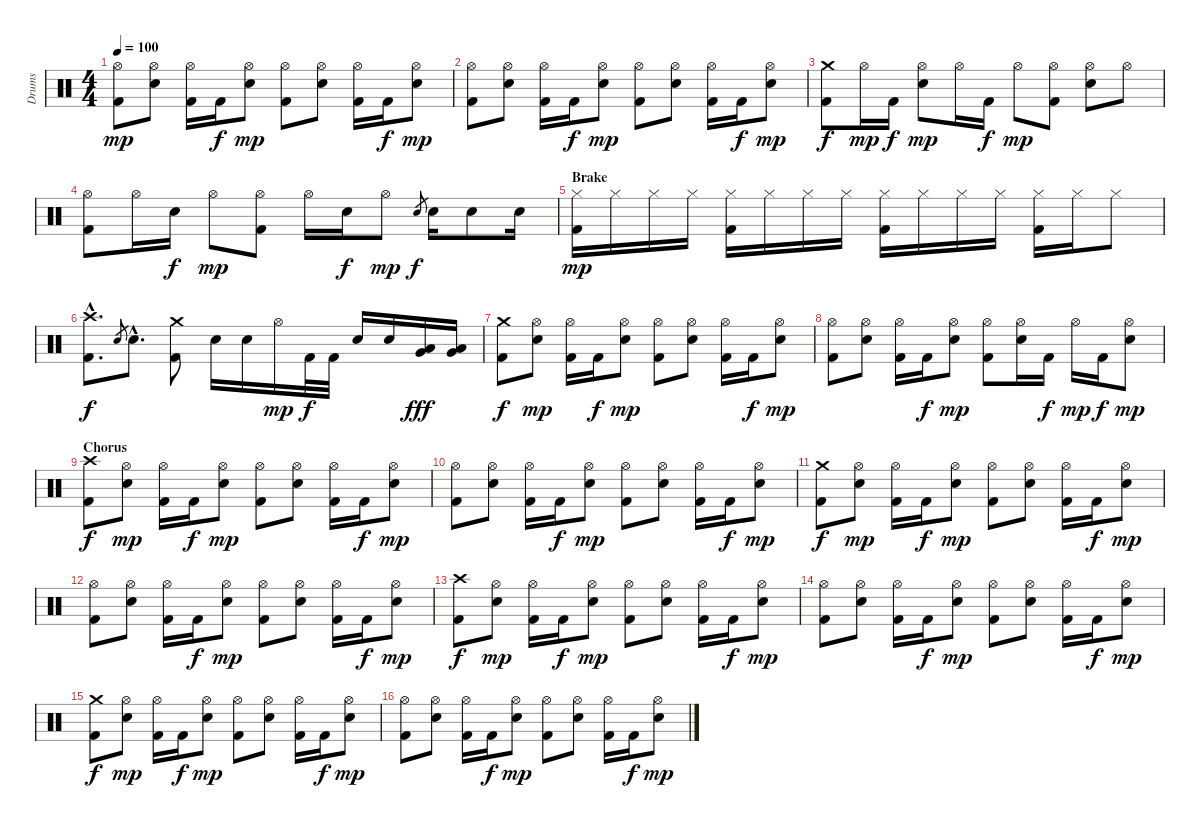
\track ("Drums" "Drums") {instrument percussion}
\staff {score}
\articulation defaults
\ts (4 4)
\tempo 100
\clef neutral
\ks c
("Hi-Hat (open)" "Kick (hit) 2").8{dy mp} ("Hi-Hat (open)" "Snare (hit) 2").8 ("Hi-Hat (open)" "Kick (hit) 2").16 "Kick (hit) 2".16{dy f} ("Hi-Hat (open)" "Snare (hit) 2").8{dy mp} ("Hi-Hat (open)" "Kick (hit) 2").8 ("Hi-Hat (open)" "Snare (hit) 2").8 ("Hi-Hat (open)" "Kick (hit) 2").16 "Kick (hit) 2".16{dy f} ("Hi-Hat (open)" "Snare (hit) 2").8{dy mp} |
("Hi-Hat (open)" "Kick (hit) 2").8 ("Hi-Hat (open)" "Snare (hit) 2").8 ("Hi-Hat (open)" "Kick (hit) 2").16 "Kick (hit) 2".16{dy f} ("Hi-Hat (open)" "Snare (hit) 2").8{dy mp} ("Hi-Hat (open)" "Kick (hit) 2").8 ("Hi-Hat (open)" "Snare (hit) 2").8 ("Hi-Hat (open)" "Kick (hit) 2").16 "Kick (hit) 2".16{dy f} ("Hi-Hat (open)" "Snare (hit) 2").8{dy mp} |
("Crash medium (hit)" "Kick (hit) 2").8{dy f} "Hi-Hat (open)".16{dy mp} "Kick (hit) 2".16{dy f} ("Hi-Hat (open)" "Snare (hit) 2").8{dy mp} "Hi-Hat (open)".16 "Kick (hit) 2".16{dy f} "Hi-Hat (open)".8{dy mp} ("Hi-Hat (open)" "Kick (hit) 2").8 ("Hi-Hat (open)" "Snare (hit) 2").8 "Hi-Hat (open)".8 |
("Hi-Hat (open)" "Kick (hit) 2").8 "Hi-Hat (open)".16 "Snare (hit) 2".16{dy f} "Hi-Hat (open)".8{dy mp} ("Hi-Hat (open)" "Kick (hit) 2").8 "Hi-Hat (open)".16 "Snare (hit) 2".16{dy f} "Hi-Hat (open)".8{dy mp} "Snare (hit) 2".8{gr dy f} "Snare (hit) 2".16 "Snare (hit) 2".8 "Snare (hit) 2".16 |
\section ("" "Brake")
("Hi-Hat (closed)" "Kick (hit) 2").16{dy mp} "Hi-Hat (closed)".16 "Hi-Hat (closed)".16 "Hi-Hat (closed)".16 ("Hi-Hat (closed)" "Kick (hit) 2").16 "Hi-Hat (closed)".16 "Hi-Hat (closed)".16 "Hi-Hat (closed)".16 ("Hi-Hat (closed)" "Kick (hit) 2").16 "Hi-Hat (closed)".16 "Hi-Hat (closed)".16 "Hi-Hat (closed)".16 ("Hi-Hat (closed)" "Kick (hit) 2").16 "Hi-Hat (closed)".16 "Hi-Hat (closed)".8 |
("Crash high (hit)"{hac} "Kick (hit) 2"{hac}).8{d dy f} "Snare (hit) 2".8{gr} "Snare (hit) 2"{hac}.8{d} ("Crash medium (hit)" "Kick (hit) 2").8 "Snare (hit) 2".16 "Snare (hit) 2".16 "Hi-Hat (open)".16{dy mp} "Kick (hit) 2".32{dy f} "Kick (hit) 2".32 "Snare (hit) 2".16 "Snare (hit) 2".16 ("Low Tom (hit)" "Very Low Tom (hit)").16{dy fff} ("Low Tom (hit)" "Very Low Tom (hit)").16 |
("Crash medium (hit)" "Kick (hit) 2").8{dy f} ("Hi-Hat (open)" "Snare (hit) 2").8{dy mp} ("Hi-Hat (open)" "Kick (hit) 2").16 "Kick (hit) 2".16{dy f} ("Hi-Hat (open)" "Snare (hit) 2").8{dy mp} ("Hi-Hat (open)" "Kick (hit) 2").8 ("Hi-Hat (open)" "Snare (hit) 2").8 ("Hi-Hat (open)" "Kick (hit) 2").16 "Kick (hit) 2".16{dy f} ("Hi-Hat (open)" "Snare (hit) 2").8{dy mp} |
("Hi-Hat (open)" "Kick (hit) 2").8 ("Hi-Hat (open)" "Snare (hit) 2").8 ("Hi-Hat (open)" "Kick (hit) 2").16 "Kick (hit) 2".16{dy f} ("Hi-Hat (open)" "Snare (hit) 2").8{dy mp} ("Hi-Hat (open)" "Kick (hit) 2").8 ("Hi-Hat (open)" "Snare (hit) 2").16 "Kick (hit) 2".16{dy f} "Hi-Hat (open)".16{dy mp} "Kick (hit) 2".16{dy f} ("Hi-Hat (open)" "Snare (hit) 2").8{dy mp} |
\section ("" "Chorus")
("Crash high (hit)" "Kick (hit) 2").8{dy f} ("Hi-Hat (open)" "Snare (hit) 2").8{dy mp} ("Hi-Hat (open)" "Kick (hit) 2").16 "Kick (hit) 2".16{dy f} ("Hi-Hat (open)" "Snare (hit) 2").8{dy mp} ("Hi-Hat (open)" "Kick (hit) 2").8 ("Hi-Hat (open)" "Snare (hit) 2").8 ("Hi-Hat (open)" "Kick (hit) 2").16 "Kick (hit) 2".16{dy f} ("Hi-Hat (open)" "Snare (hit) 2").8{dy mp} |
("Hi-Hat (open)" "Kick (hit) 2").8 ("Hi-Hat (open)" "Snare (hit) 2").8 ("Hi-Hat (open)" "Kick (hit) 2").16 "Kick (hit) 2".16{dy f} ("Hi-Hat (open)" "Snare (hit) 2").8{dy mp} ("Hi-Hat (open)" "Kick (hit) 2").8 ("Hi-Hat (open)" "Snare (hit) 2").8 ("Hi-Hat (open)" "Kick (hit) 2").16 "Kick (hit) 2".16{dy f} ("Hi-Hat (open)" "Snare (hit) 2").8{dy mp} |
("Crash medium (hit)" "Kick (hit) 2").8{dy f} ("Hi-Hat (open)" "Snare (hit) 2").8{dy mp} ("Hi-Hat (open)" "Kick (hit) 2").16 "Kick (hit) 2".16{dy f} ("Hi-Hat (open)" "Snare (hit) 2").8{dy mp} ("Hi-Hat (open)" "Kick (hit) 2").8 ("Hi-Hat (open)" "Snare (hit) 2").8 ("Hi-Hat (open)" "Kick (hit) 2").16 "Kick (hit) 2".16{dy f} ("Hi-Hat (open)" "Snare (hit) 2").8{dy mp} |
("Hi-Hat (open)" "Kick (hit) 2").8 ("Hi-Hat (open)" "Snare (hit) 2").8 ("Hi-Hat (open)" "Kick (hit) 2").16 "Kick (hit) 2".16{dy f} ("Hi-Hat (open)" "Snare (hit) 2").8{dy mp} ("Hi-Hat (open)" "Kick (hit) 2").8 ("Hi-Hat (open)" "Snare (hit) 2").8 ("Hi-Hat (open)" "Kick (hit) 2").16 "Kick (hit) 2".16{dy f} ("Hi-Hat (open)" "Snare (hit) 2").8{dy mp} |
("Crash high (hit)" "Kick (hit) 2").8{dy f} ("Hi-Hat (open)" "Snare (hit) 2").8{dy mp} ("Hi-Hat (open)" "Kick (hit) 2").16 "Kick (hit) 2".16{dy f} ("Hi-Hat (open)" "Snare (hit) 2").8{dy mp} ("Hi-Hat (open)" "Kick (hit) 2").8 ("Hi-Hat (open)" "Snare (hit) 2").8 ("Hi-Hat (open)" "Kick (hit) 2").16 "Kick (hit) 2".16{dy f} ("Hi-Hat (open)" "Snare (hit) 2").8{dy mp} |
("Hi-Hat (open)" "Kick (hit) 2").8 ("Hi-Hat (open)" "Snare (hit) 2").8 ("Hi-Hat (open)" "Kick (hit) 2").16 "Kick (hit) 2".16{dy f} ("Hi-Hat (open)" "Snare (hit) 2").8{dy mp} ("Hi-Hat (open)" "Kick (hit) 2").8 ("Hi-Hat (open)" "Snare (hit) 2").8 ("Hi-Hat (open)" "Kick (hit) 2").16 "Kick (hit) 2".16{dy f} ("Hi-Hat (open)" "Snare (hit) 2").8{dy mp} |
("Crash medium (hit)" "Kick (hit) 2").8{dy f} ("Hi-Hat (open)" "Snare (hit) 2").8{dy mp} ("Hi-Hat (open)" "Kick (hit) 2").16 "Kick (hit) 2".16{dy f} ("Hi-Hat (open)" "Snare (hit) 2").8{dy mp} ("Hi-Hat (open)" "Kick (hit) 2").8 ("Hi-Hat (open)" "Snare (hit) 2").8 ("Hi-Hat (open)" "Kick (hit) 2").16 "Kick (hit) 2".16{dy f} ("Hi-Hat (open)" "Snare (hit) 2").8{dy mp} |
("Hi-Hat (open)" "Kick (hit) 2").8 ("Hi-Hat (open)" "Snare (hit) 2").8 ("Hi-Hat (open)" "Kick (hit) 2").16 "Kick (hit) 2".16{dy f} ("Hi-Hat (open)" "Snare (hit) 2").8{dy mp} ("Hi-Hat (open)" "Kick (hit) 2").8 ("Hi-Hat (open)" "Snare (hit) 2").8 ("Hi-Hat (open)" "Kick (hit) 2").16 "Kick (hit) 2".16{dy f} ("Hi-Hat (open)" "Snare (hit) 2").8{dy mp}
